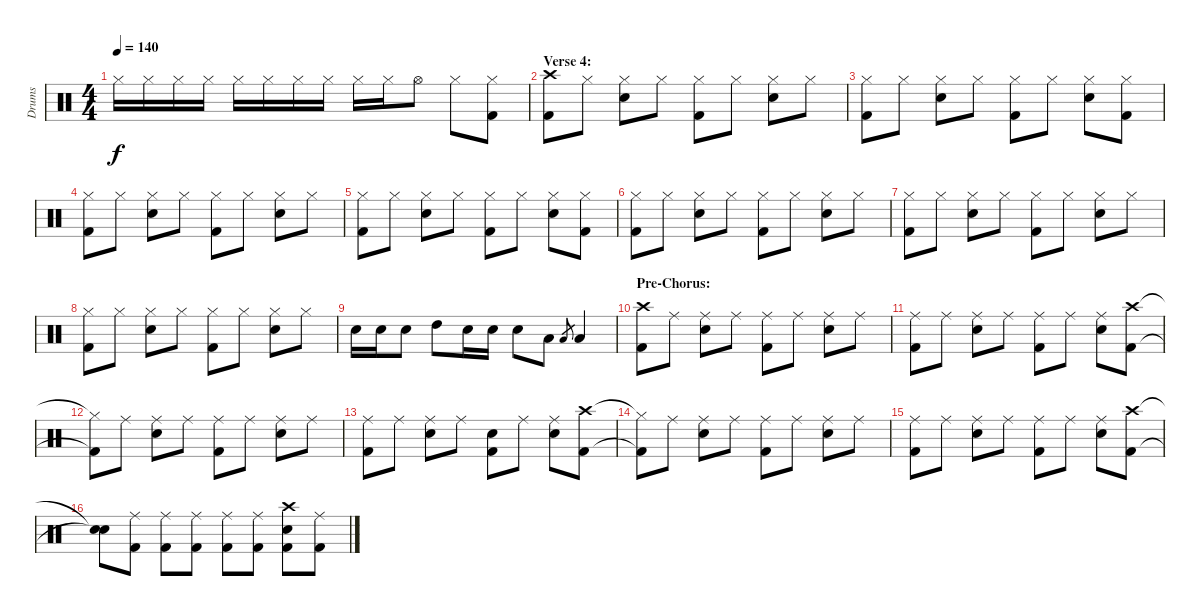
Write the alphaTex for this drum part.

\track ("Drums" "Drums") {instrument percussion}
\staff {score}
\articulation defaults
\ts (4 4)
\tempo 140
\clef neutral
\ks c "Hi-Hat (closed)".16{dy f} "Hi-Hat (closed)".16 "Hi-Hat (closed)".16 "Hi-Hat (closed)".16 "Hi-Hat (closed)".16 "Hi-Hat (closed)".16 "Hi-Hat (closed)".16 "Hi-Hat (closed)".16 "Hi-Hat (closed)".16 "Hi-Hat (closed)".16 "Hi-Hat (open)".8 "Hi-Hat (closed)".8
("Hi-Hat (closed)" "Kick (hit) 2").8 |
\section ("" "Verse 4:")
("Crash high (hit)" "Kick (hit) 2").8 "Hi-Hat (closed)".8 ("Hi-Hat (closed)" "Electric Snare (hit)").8 "Hi-Hat (closed)".8 ("Hi-Hat (closed)" "Kick (hit) 2").8 "Hi-Hat (closed)".8 ("Hi-Hat (closed)" "Electric Snare (hit)").8 "Hi-Hat (closed)".8 |
("Hi-Hat (closed)" "Kick (hit) 2").8 "Hi-Hat (closed)".8 ("Hi-Hat (closed)" "Electric Snare (hit)").8 "Hi-Hat (closed)".8 ("Hi-Hat (closed)" "Kick (hit) 2").8 "Hi-Hat (closed)".8 ("Hi-Hat (closed)" "Electric Snare (hit)").8 ("Hi-Hat (closed)" "Kick (hit) 2").8 |
("Hi-Hat (closed)" "Kick (hit) 2").8 "Hi-Hat (closed)".8 ("Hi-Hat (closed)" "Electric Snare (hit)").8 "Hi-Hat (closed)".8 ("Hi-Hat (closed)" "Kick (hit) 2").8 "Hi-Hat (closed)".8 ("Hi-Hat (closed)" "Electric Snare (hit)").8 "Hi-Hat (closed)".8 |
("Hi-Hat (closed)" "Kick (hit) 2").8 "Hi-Hat (closed)".8 ("Hi-Hat (closed)" "Electric Snare (hit)").8 "Hi-Hat (closed)".8 ("Hi-Hat (closed)" "Kick (hit) 2").8 "Hi-Hat (closed)".8 ("Hi-Hat (closed)" "Electric Snare (hit)").8 ("Hi-Hat (closed)" "Kick (hit) 2").8 |
("Hi-Hat (closed)" "Kick (hit) 2").8 "Hi-Hat (closed)".8 ("Hi-Hat (closed)" "Electric Snare (hit)").8 "Hi-Hat (closed)".8 ("Hi-Hat (closed)" "Kick (hit) 2").8 "Hi-Hat (closed)".8 ("Hi-Hat (closed)" "Electric Snare (hit)").8 "Hi-Hat (closed)".8 |
("Hi-Hat (closed)" "Kick (hit) 2").8 "Hi-Hat (closed)".8 ("Hi-Hat (closed)" "Electric Snare (hit)").8 "Hi-Hat (closed)".8 ("Hi-Hat (closed)" "Kick (hit) 2").8 "Hi-Hat (closed)".8 ("Hi-Hat (closed)" "Electric Snare (hit)").8 "Hi-Hat (closed)".8 |
("Hi-Hat (closed)" "Kick (hit) 2").8 "Hi-Hat (closed)".8 ("Hi-Hat (closed)" "Electric Snare (hit)").8 "Hi-Hat (closed)".8 ("Hi-Hat (closed)" "Kick (hit) 2").8 "Hi-Hat (closed)".8 ("Hi-Hat (closed)" "Electric Snare (hit)").8 "Hi-Hat (closed)".8 |
"Electric Snare (hit)".16 "Electric Snare (hit)".16 "Electric Snare (hit)".8 "High Tom (hit)".8 "Electric Snare (hit)".16 "Electric Snare (hit)".16 "Electric Snare (hit)".8 "Low Tom (hit)".8 "Low Tom (hit)".8{gr} "Low Tom (hit)".4 |
\section ("" "Pre-Chorus:")
("Crash high (hit)" "Kick (hit) 2").8 "Ride (middle)".8 ("Ride (middle)" "Electric Snare (hit)").8 "Ride (middle)".8 ("Ride (middle)" "Kick (hit) 2").8 "Ride (middle)".8 ("Ride (middle)" "Electric Snare (hit)").8 "Ride (middle)".8 |
("Ride (middle)" "Kick (hit) 2").8 "Ride (middle)".8 ("Ride (middle)" "Electric Snare (hit)").8 "Ride (middle)".8 ("Ride (middle)" "Kick (hit) 2").8 "Ride (middle)".8 ("Ride (middle)" "Electric Snare (hit)").8 ("Crash high (hit)" "Kick (hit) 2").8 |
("Hi-Hat (closed)"{t} "Kick (hit) 2"{t}).8 "Ride (middle)".8 ("Ride (middle)" "Electric Snare (hit)").8 "Ride (middle)".8 ("Ride (middle)" "Kick (hit) 2").8 "Ride (middle)".8 ("Ride (middle)" "Electric Snare (hit)").8 "Ride (middle)".8 |
("Ride (middle)" "Kick (hit) 2").8 "Ride (middle)".8 ("Ride (middle)" "Electric Snare (hit)").8 "Ride (middle)".8 ("Snare (hit)" "Kick (hit) 2").8 "Ride (middle)".8 ("Ride (middle)" "Electric Snare (hit)").8 ("Crash high (hit)" "Kick (hit) 2").8 |
("Hi-Hat (closed)"{t} "Kick (hit) 2"{t}).8 "Ride (middle)".8 ("Ride (middle)" "Electric Snare (hit)").8 "Ride (middle)".8 ("Ride (middle)" "Kick (hit) 2").8 "Ride (middle)".8 ("Ride (middle)" "Electric Snare (hit)").8 "Ride (middle)".8 |
("Ride (middle)" "Kick (hit) 2").8 "Ride (middle)".8 ("Ride (middle)" "Electric Snare (hit)").8 "Ride (middle)".8 ("Ride (middle)" "Kick (hit) 2").8 "Ride (middle)".8 ("Ride (middle)" "Electric Snare (hit)").8 ("Crash high (hit)" "Kick (hit) 2").8 |
("Snare (hit)"{t} "Snare (hit)"{t}).8 ("Ride (middle)" "Kick (hit) 2").8 ("Ride (middle)" "Kick (hit) 2").8 ("Ride (middle)" "Kick (hit) 2").8 ("Ride (middle)" "Kick (hit) 2").8 ("Ride (middle)" "Kick (hit) 2").8 ("Crash high (hit)" "Electric Snare (hit)" "Kick (hit) 2").8 ("Ride (middle)" "Kick (hit) 2").8
